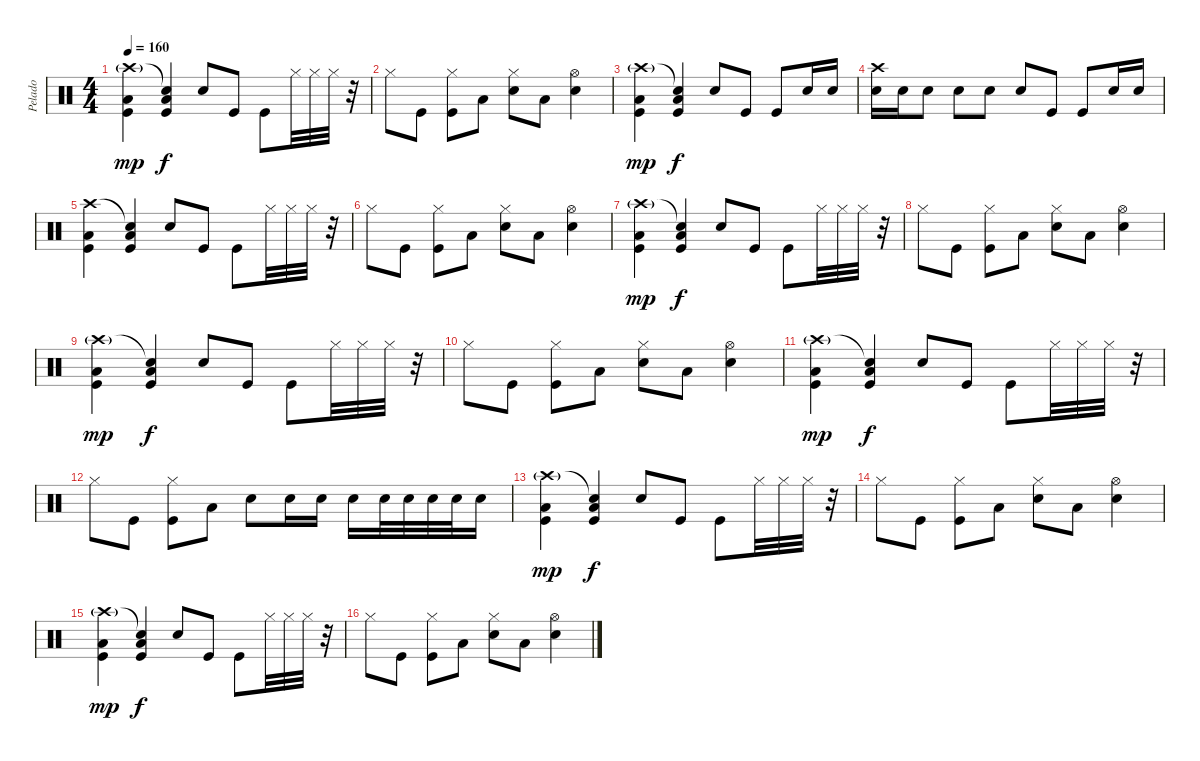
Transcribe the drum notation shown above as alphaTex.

\track ("Pelado" "Pelado") {instrument percussion}
\staff {score}
\articulation defaults
\ts (4 4)
\tempo 160
\clef neutral
\ks c
("Crash high (hit)"{g} "Kick (hit)" "Low Tom (hit)").4{dy mp} ("Snare (hit)"{t} "Kick (hit)" "Low Tom (hit)").4{dy f} "Snare (hit) 2".8 "Kick (hit)".8 "Kick (hit)".8 "Hi-Hat (closed)".32 "Hi-Hat (closed)".32 "Hi-Hat (closed)".32 r.32 |
"Hi-Hat (closed)".8 "Kick (hit)".8 ("Hi-Hat (closed)" "Kick (hit)").8 "Low Tom (hit)".8 ("Hi-Hat (closed)" "Snare (hit) 2").8 "Low Tom (hit)".8 ("Hi-Hat (open)" "Snare (hit) 2").4 |
("Crash high (hit)"{g} "Kick (hit)" "Low Tom (hit)").4{dy mp} ("Snare (hit)"{t} "Kick (hit)" "Low Tom (hit)").4{dy f} "Snare (hit) 2".8 "Kick (hit)".8 "Kick (hit)".8 "Snare (hit) 2".16 "Snare (hit) 2".16 |
("Crash high (hit)" "Snare (hit) 2").16 "Snare (hit) 2".16 "Snare (hit) 2".8 "Snare (hit) 2".8 "Snare (hit) 2".8 "Snare (hit) 2".8 "Kick (hit)".8 "Kick (hit)".8 "Snare (hit) 2".16 "Snare (hit) 2".16 |
("Crash high (hit)" "Kick (hit)" "Low Tom (hit)").4 ("Snare (hit)"{t} "Kick (hit)" "Low Tom (hit)").4 "Snare (hit) 2".8 "Kick (hit)".8 "Kick (hit)".8 "Hi-Hat (closed)".32 "Hi-Hat (closed)".32 "Hi-Hat (closed)".32 r.32 |
"Hi-Hat (closed)".8 "Kick (hit)".8 ("Hi-Hat (closed)" "Kick (hit)").8 "Low Tom (hit)".8 ("Hi-Hat (closed)" "Snare (hit) 2").8 "Low Tom (hit)".8 ("Hi-Hat (open)" "Snare (hit) 2").4 |
("Crash high (hit)"{g} "Kick (hit)" "Low Tom (hit)").4{dy mp} ("Snare (hit)"{t} "Kick (hit)" "Low Tom (hit)").4{dy f} "Snare (hit) 2".8 "Kick (hit)".8 "Kick (hit)".8 "Hi-Hat (closed)".32 "Hi-Hat (closed)".32 "Hi-Hat (closed)".32 r.32 |
"Hi-Hat (closed)".8 "Kick (hit)".8 ("Hi-Hat (closed)" "Kick (hit)").8 "Low Tom (hit)".8 ("Hi-Hat (closed)" "Snare (hit) 2").8 "Low Tom (hit)".8 ("Hi-Hat (open)" "Snare (hit) 2").4 |
("Crash high (hit)"{g} "Kick (hit)" "Low Tom (hit)").4{dy mp} ("Snare (hit)"{t} "Kick (hit)" "Low Tom (hit)").4{dy f} "Snare (hit) 2".8 "Kick (hit)".8 "Kick (hit)".8 "Hi-Hat (closed)".32 "Hi-Hat (closed)".32 "Hi-Hat (closed)".32 r.32 |
"Hi-Hat (closed)".8 "Kick (hit)".8 ("Hi-Hat (closed)" "Kick (hit)").8 "Low Tom (hit)".8 ("Hi-Hat (closed)" "Snare (hit) 2").8 "Low Tom (hit)".8 ("Hi-Hat (open)" "Snare (hit) 2").4 |
("Crash high (hit)"{g} "Kick (hit)" "Low Tom (hit)").4{dy mp} ("Snare (hit)"{t} "Kick (hit)" "Low Tom (hit)").4{dy f} "Snare (hit) 2".8 "Kick (hit)".8 "Kick (hit)".8 "Hi-Hat (closed)".32 "Hi-Hat (closed)".32 "Hi-Hat (closed)".32 r.32 |
"Hi-Hat (closed)".8 "Kick (hit)".8 ("Hi-Hat (closed)" "Kick (hit)").8 "Low Tom (hit)".8 "Snare (hit) 2".8 "Snare (hit) 2".16 "Snare (hit) 2".16 "Snare (hit) 2".16 "Snare (hit) 2".32 "Snare (hit) 2".32 "Snare (hit) 2".32 "Snare (hit) 2".32 "Snare (hit) 2".16 |
("Crash high (hit)"{g} "Kick (hit)" "Low Tom (hit)").4{dy mp} ("Snare (hit)"{t} "Kick (hit)" "Low Tom (hit)").4{dy f} "Snare (hit) 2".8 "Kick (hit)".8 "Kick (hit)".8 "Hi-Hat (closed)".32 "Hi-Hat (closed)".32 "Hi-Hat (closed)".32 r.32 |
"Hi-Hat (closed)".8 "Kick (hit)".8 ("Hi-Hat (closed)" "Kick (hit)").8 "Low Tom (hit)".8 ("Hi-Hat (closed)" "Snare (hit) 2").8 "Low Tom (hit)".8 ("Hi-Hat (open)" "Snare (hit) 2").4 |
("Crash high (hit)"{g} "Kick (hit)" "Low Tom (hit)").4{dy mp} ("Snare (hit)"{t} "Kick (hit)" "Low Tom (hit)").4{dy f} "Snare (hit) 2".8 "Kick (hit)".8 "Kick (hit)".8 "Hi-Hat (closed)".32 "Hi-Hat (closed)".32 "Hi-Hat (closed)".32 r.32 |
"Hi-Hat (closed)".8 "Kick (hit)".8 ("Hi-Hat (closed)" "Kick (hit)").8 "Low Tom (hit)".8 ("Hi-Hat (closed)" "Snare (hit) 2").8 "Low Tom (hit)".8 ("Hi-Hat (open)" "Snare (hit) 2").4
